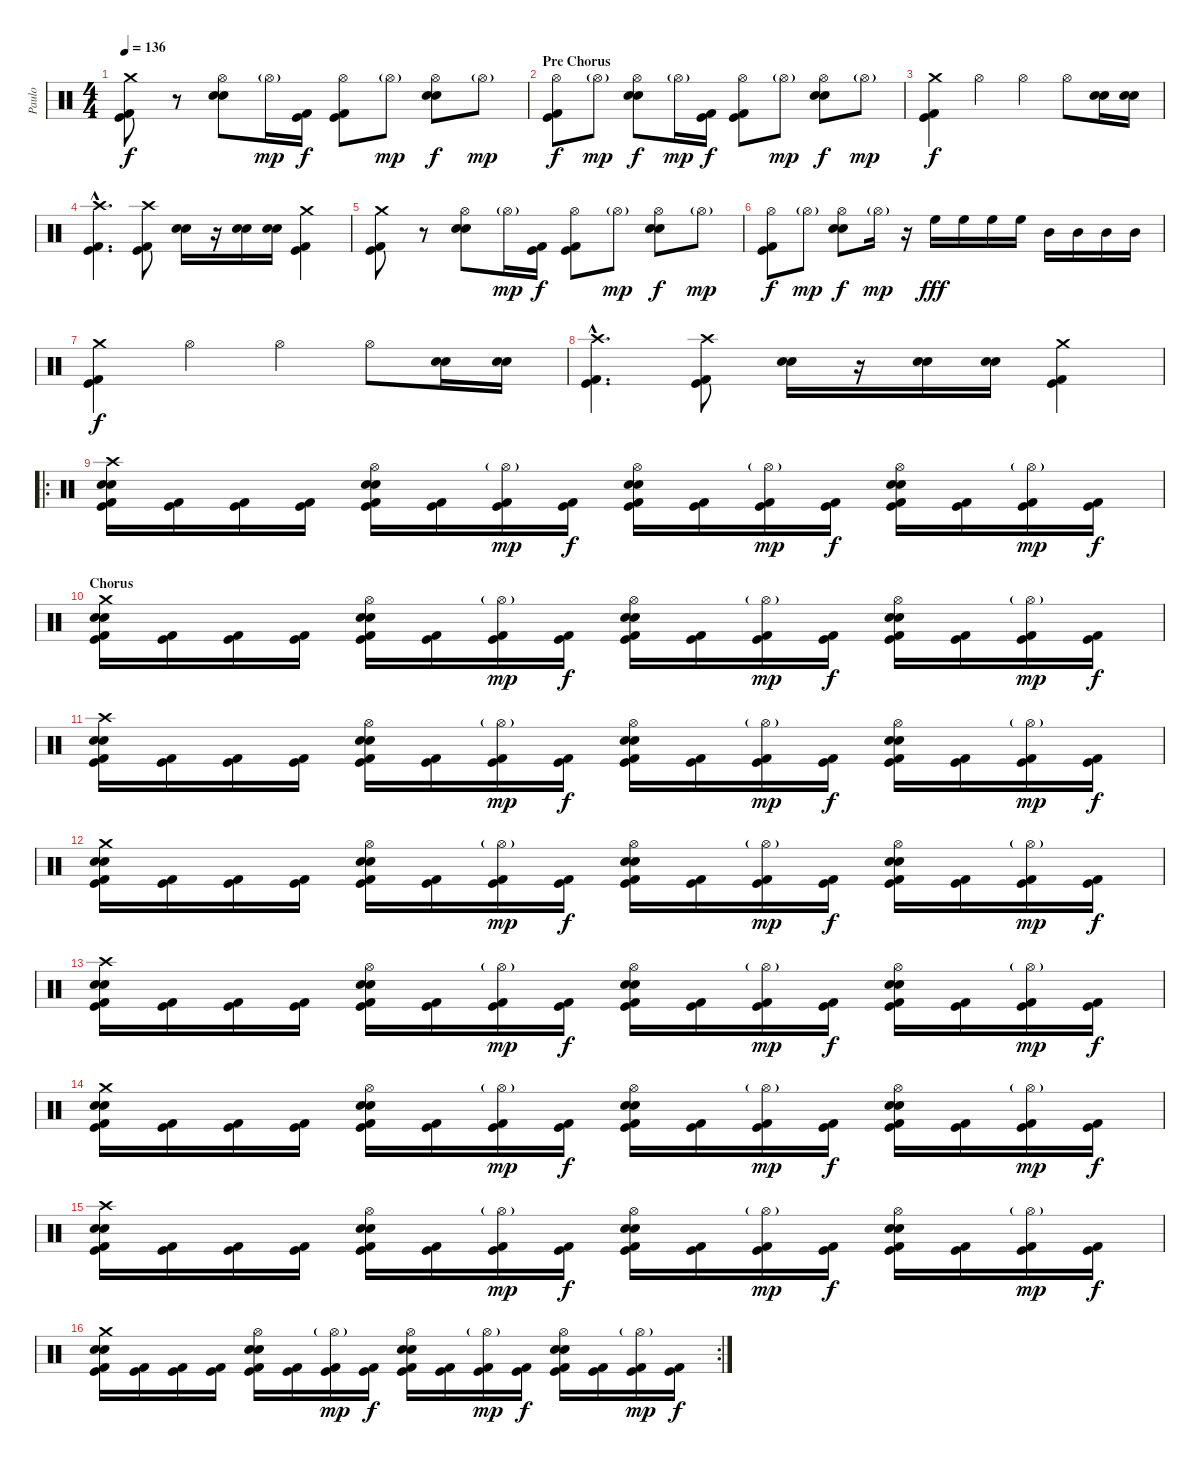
\track ("Paulo" "Paulo") {instrument percussion}
\staff {score}
\articulation defaults
\ts (4 4)
\tempo 136
\clef neutral
\ks c
("Crash medium (hit)" "Kick (hit) 2" "Kick (hit)").8{dy f} r.8 ("Hi-Hat (open)" "Electric Snare (hit)" "Snare (hit) 2").8 "Hi-Hat (open)"{g}.16{dy mp} ("Kick (hit) 2" "Kick (hit)").16{dy f} ("Hi-Hat (open)" "Kick (hit) 2" "Kick (hit)").8 "Hi-Hat (open)"{g}.8{dy mp} ("Hi-Hat (open)" "Electric Snare (hit)" "Snare (hit) 2").8{dy f} "Hi-Hat (open)"{g}.8{dy mp} |
\section ("" "Pre Chorus")
("Hi-Hat (open)" "Kick (hit) 2" "Kick (hit)").8{dy f} "Hi-Hat (open)"{g}.8{dy mp} ("Hi-Hat (open)" "Electric Snare (hit)" "Snare (hit) 2").8{dy f} "Hi-Hat (open)"{g}.16{dy mp} ("Kick (hit) 2" "Kick (hit)").16{dy f} ("Hi-Hat (open)" "Kick (hit) 2" "Kick (hit)").8 "Hi-Hat (open)"{g}.8{dy mp} ("Hi-Hat (open)" "Electric Snare (hit)" "Snare (hit) 2").8{dy f} "Hi-Hat (open)"{g}.8{dy mp} |
("Crash medium (hit)" "Kick (hit) 2" "Kick (hit)").4{dy f} "Hi-Hat (open)".4 "Hi-Hat (open)".4 "Hi-Hat (open)".8 ("Snare (hit) 2" "Electric Snare (hit)").16 ("Snare (hit) 2" "Electric Snare (hit)").16 |
("Crash high (hit)"{hac} "Kick (hit) 2"{hac} "Kick (hit)"{hac}).4{d} ("Crash high (hit)" "Kick (hit) 2" "Kick (hit)").8 ("Snare (hit) 2" "Electric Snare (hit)").16 r.16 ("Snare (hit) 2" "Electric Snare (hit)").16 ("Snare (hit) 2" "Electric Snare (hit)").16 ("Crash medium (hit)" "Kick (hit) 2" "Kick (hit)").4 |
("Crash medium (hit)" "Kick (hit) 2" "Kick (hit)").8 r.8 ("Hi-Hat (open)" "Electric Snare (hit)" "Snare (hit) 2").8 "Hi-Hat (open)"{g}.16{dy mp} ("Kick (hit) 2" "Kick (hit)").16{dy f} ("Hi-Hat (open)" "Kick (hit) 2" "Kick (hit)").8 "Hi-Hat (open)"{g}.8{dy mp} ("Hi-Hat (open)" "Electric Snare (hit)" "Snare (hit) 2").8{dy f} "Hi-Hat (open)"{g}.8{dy mp} |
("Hi-Hat (open)" "Kick (hit) 2" "Kick (hit)").8{dy f} "Hi-Hat (open)"{g}.8{dy mp} ("Hi-Hat (open)" "Electric Snare (hit)" "Snare (hit) 2").8{dy f} "Hi-Hat (open)"{g}.16{dy mp} r.16 "High Floor Tom (hit)".16{dy fff} "High Floor Tom (hit)".16 "High Floor Tom (hit)".16 "High Floor Tom (hit)".16 "Mid Tom (hit)".16 "Mid Tom (hit)".16 "Mid Tom (hit)".16 "Mid Tom (hit)".16 |
("Crash medium (hit)" "Kick (hit) 2" "Kick (hit)").4{dy f} "Hi-Hat (open)".4 "Hi-Hat (open)".4 "Hi-Hat (open)".8 ("Snare (hit) 2" "Electric Snare (hit)").16 ("Snare (hit) 2" "Electric Snare (hit)").16 |
("Crash high (hit)"{hac} "Kick (hit) 2"{hac} "Kick (hit)"{hac}).4{d} ("Crash high (hit)" "Kick (hit) 2" "Kick (hit)").8 ("Snare (hit) 2" "Electric Snare (hit)").16 r.16 ("Snare (hit) 2" "Electric Snare (hit)").16 ("Snare (hit) 2" "Electric Snare (hit)").16 ("Crash medium (hit)" "Kick (hit) 2" "Kick (hit)").4 |
\ro
("Snare (hit) 2" "Electric Snare (hit)" "Crash high (hit)" "Kick (hit) 2" "Kick (hit)").16 ("Kick (hit) 2" "Kick (hit)").16 ("Kick (hit) 2" "Kick (hit)").16 ("Kick (hit) 2" "Kick (hit)").16 ("Hi-Hat (open)" "Snare (hit) 2" "Electric Snare (hit)" "Kick (hit) 2" "Kick (hit)").16 ("Kick (hit) 2" "Kick (hit)").16 ("Hi-Hat (open)"{g} "Kick (hit) 2" "Kick (hit)").16{dy mp} ("Kick (hit) 2" "Kick (hit)").16{dy f} ("Hi-Hat (open)" "Snare (hit) 2" "Electric Snare (hit)" "Kick (hit) 2" "Kick (hit)").16 ("Kick (hit) 2" "Kick (hit)").16 ("Hi-Hat (open)"{g} "Kick (hit) 2" "Kick (hit)").16{dy mp} ("Kick (hit) 2" "Kick (hit)").16{dy f} ("Hi-Hat (open)" "Snare (hit) 2" "Electric Snare (hit)" "Kick (hit) 2" "Kick (hit)").16 ("Kick (hit) 2" "Kick (hit)").16 ("Hi-Hat (open)"{g} "Kick (hit) 2" "Kick (hit)").16{dy mp} ("Kick (hit) 2" "Kick (hit)").16{dy f} |
\section ("" "Chorus")
("Snare (hit) 2" "Electric Snare (hit)" "Crash medium (hit)" "Kick (hit) 2" "Kick (hit)").16 ("Kick (hit) 2" "Kick (hit)").16 ("Kick (hit) 2" "Kick (hit)").16 ("Kick (hit) 2" "Kick (hit)").16 ("Hi-Hat (open)" "Snare (hit) 2" "Electric Snare (hit)" "Kick (hit) 2" "Kick (hit)").16 ("Kick (hit) 2" "Kick (hit)").16 ("Hi-Hat (open)"{g} "Kick (hit) 2" "Kick (hit)").16{dy mp} ("Kick (hit) 2" "Kick (hit)").16{dy f} ("Hi-Hat (open)" "Snare (hit) 2" "Electric Snare (hit)" "Kick (hit) 2" "Kick (hit)").16 ("Kick (hit) 2" "Kick (hit)").16 ("Hi-Hat (open)"{g} "Kick (hit) 2" "Kick (hit)").16{dy mp} ("Kick (hit) 2" "Kick (hit)").16{dy f} ("Hi-Hat (open)" "Snare (hit) 2" "Electric Snare (hit)" "Kick (hit) 2" "Kick (hit)").16 ("Kick (hit) 2" "Kick (hit)").16 ("Hi-Hat (open)"{g} "Kick (hit) 2" "Kick (hit)").16{dy mp} ("Kick (hit) 2" "Kick (hit)").16{dy f} |
("Snare (hit) 2" "Electric Snare (hit)" "Crash high (hit)" "Kick (hit) 2" "Kick (hit)").16 ("Kick (hit) 2" "Kick (hit)").16 ("Kick (hit) 2" "Kick (hit)").16 ("Kick (hit) 2" "Kick (hit)").16 ("Hi-Hat (open)" "Snare (hit) 2" "Electric Snare (hit)" "Kick (hit) 2" "Kick (hit)").16 ("Kick (hit) 2" "Kick (hit)").16 ("Hi-Hat (open)"{g} "Kick (hit) 2" "Kick (hit)").16{dy mp} ("Kick (hit) 2" "Kick (hit)").16{dy f} ("Hi-Hat (open)" "Snare (hit) 2" "Electric Snare (hit)" "Kick (hit) 2" "Kick (hit)").16 ("Kick (hit) 2" "Kick (hit)").16 ("Hi-Hat (open)"{g} "Kick (hit) 2" "Kick (hit)").16{dy mp} ("Kick (hit) 2" "Kick (hit)").16{dy f} ("Hi-Hat (open)" "Snare (hit) 2" "Electric Snare (hit)" "Kick (hit) 2" "Kick (hit)").16 ("Kick (hit) 2" "Kick (hit)").16 ("Hi-Hat (open)"{g} "Kick (hit) 2" "Kick (hit)").16{dy mp} ("Kick (hit) 2" "Kick (hit)").16{dy f} |
("Snare (hit) 2" "Electric Snare (hit)" "Crash medium (hit)" "Kick (hit) 2" "Kick (hit)").16 ("Kick (hit) 2" "Kick (hit)").16 ("Kick (hit) 2" "Kick (hit)").16 ("Kick (hit) 2" "Kick (hit)").16 ("Hi-Hat (open)" "Snare (hit) 2" "Electric Snare (hit)" "Kick (hit) 2" "Kick (hit)").16 ("Kick (hit) 2" "Kick (hit)").16 ("Hi-Hat (open)"{g} "Kick (hit) 2" "Kick (hit)").16{dy mp} ("Kick (hit) 2" "Kick (hit)").16{dy f} ("Hi-Hat (open)" "Snare (hit) 2" "Electric Snare (hit)" "Kick (hit) 2" "Kick (hit)").16 ("Kick (hit) 2" "Kick (hit)").16 ("Hi-Hat (open)"{g} "Kick (hit) 2" "Kick (hit)").16{dy mp} ("Kick (hit) 2" "Kick (hit)").16{dy f} ("Hi-Hat (open)" "Snare (hit) 2" "Electric Snare (hit)" "Kick (hit) 2" "Kick (hit)").16 ("Kick (hit) 2" "Kick (hit)").16 ("Hi-Hat (open)"{g} "Kick (hit) 2" "Kick (hit)").16{dy mp} ("Kick (hit) 2" "Kick (hit)").16{dy f} |
("Snare (hit) 2" "Electric Snare (hit)" "Crash high (hit)" "Kick (hit) 2" "Kick (hit)").16 ("Kick (hit) 2" "Kick (hit)").16 ("Kick (hit) 2" "Kick (hit)").16 ("Kick (hit) 2" "Kick (hit)").16 ("Hi-Hat (open)" "Snare (hit) 2" "Electric Snare (hit)" "Kick (hit) 2" "Kick (hit)").16 ("Kick (hit) 2" "Kick (hit)").16 ("Hi-Hat (open)"{g} "Kick (hit) 2" "Kick (hit)").16{dy mp} ("Kick (hit) 2" "Kick (hit)").16{dy f} ("Hi-Hat (open)" "Snare (hit) 2" "Electric Snare (hit)" "Kick (hit) 2" "Kick (hit)").16 ("Kick (hit) 2" "Kick (hit)").16 ("Hi-Hat (open)"{g} "Kick (hit) 2" "Kick (hit)").16{dy mp} ("Kick (hit) 2" "Kick (hit)").16{dy f} ("Hi-Hat (open)" "Snare (hit) 2" "Electric Snare (hit)" "Kick (hit) 2" "Kick (hit)").16 ("Kick (hit) 2" "Kick (hit)").16 ("Hi-Hat (open)"{g} "Kick (hit) 2" "Kick (hit)").16{dy mp} ("Kick (hit) 2" "Kick (hit)").16{dy f} |
("Snare (hit) 2" "Electric Snare (hit)" "Crash medium (hit)" "Kick (hit) 2" "Kick (hit)").16 ("Kick (hit) 2" "Kick (hit)").16 ("Kick (hit) 2" "Kick (hit)").16 ("Kick (hit) 2" "Kick (hit)").16 ("Hi-Hat (open)" "Snare (hit) 2" "Electric Snare (hit)" "Kick (hit) 2" "Kick (hit)").16 ("Kick (hit) 2" "Kick (hit)").16 ("Hi-Hat (open)"{g} "Kick (hit) 2" "Kick (hit)").16{dy mp} ("Kick (hit) 2" "Kick (hit)").16{dy f} ("Hi-Hat (open)" "Snare (hit) 2" "Electric Snare (hit)" "Kick (hit) 2" "Kick (hit)").16 ("Kick (hit) 2" "Kick (hit)").16 ("Hi-Hat (open)"{g} "Kick (hit) 2" "Kick (hit)").16{dy mp} ("Kick (hit) 2" "Kick (hit)").16{dy f} ("Hi-Hat (open)" "Snare (hit) 2" "Electric Snare (hit)" "Kick (hit) 2" "Kick (hit)").16 ("Kick (hit) 2" "Kick (hit)").16 ("Hi-Hat (open)"{g} "Kick (hit) 2" "Kick (hit)").16{dy mp} ("Kick (hit) 2" "Kick (hit)").16{dy f} |
("Snare (hit) 2" "Electric Snare (hit)" "Crash high (hit)" "Kick (hit) 2" "Kick (hit)").16 ("Kick (hit) 2" "Kick (hit)").16 ("Kick (hit) 2" "Kick (hit)").16 ("Kick (hit) 2" "Kick (hit)").16 ("Hi-Hat (open)" "Snare (hit) 2" "Electric Snare (hit)" "Kick (hit) 2" "Kick (hit)").16 ("Kick (hit) 2" "Kick (hit)").16 ("Hi-Hat (open)"{g} "Kick (hit) 2" "Kick (hit)").16{dy mp} ("Kick (hit) 2" "Kick (hit)").16{dy f} ("Hi-Hat (open)" "Snare (hit) 2" "Electric Snare (hit)" "Kick (hit) 2" "Kick (hit)").16 ("Kick (hit) 2" "Kick (hit)").16 ("Hi-Hat (open)"{g} "Kick (hit) 2" "Kick (hit)").16{dy mp} ("Kick (hit) 2" "Kick (hit)").16{dy f} ("Hi-Hat (open)" "Snare (hit) 2" "Electric Snare (hit)" "Kick (hit) 2" "Kick (hit)").16 ("Kick (hit) 2" "Kick (hit)").16 ("Hi-Hat (open)"{g} "Kick (hit) 2" "Kick (hit)").16{dy mp} ("Kick (hit) 2" "Kick (hit)").16{dy f} |
\rc 2
("Snare (hit) 2" "Electric Snare (hit)" "Crash medium (hit)" "Kick (hit) 2" "Kick (hit)").16 ("Kick (hit) 2" "Kick (hit)").16 ("Kick (hit) 2" "Kick (hit)").16 ("Kick (hit) 2" "Kick (hit)").16 ("Hi-Hat (open)" "Snare (hit) 2" "Electric Snare (hit)" "Kick (hit) 2" "Kick (hit)").16 ("Kick (hit) 2" "Kick (hit)").16 ("Hi-Hat (open)"{g} "Kick (hit) 2" "Kick (hit)").16{dy mp} ("Kick (hit) 2" "Kick (hit)").16{dy f} ("Hi-Hat (open)" "Snare (hit) 2" "Electric Snare (hit)" "Kick (hit) 2" "Kick (hit)").16 ("Kick (hit) 2" "Kick (hit)").16 ("Hi-Hat (open)"{g} "Kick (hit) 2" "Kick (hit)").16{dy mp} ("Kick (hit) 2" "Kick (hit)").16{dy f} ("Hi-Hat (open)" "Snare (hit) 2" "Electric Snare (hit)" "Kick (hit) 2" "Kick (hit)").16 ("Kick (hit) 2" "Kick (hit)").16 ("Hi-Hat (open)"{g} "Kick (hit) 2" "Kick (hit)").16{dy mp} ("Kick (hit) 2" "Kick (hit)").16{dy f}
